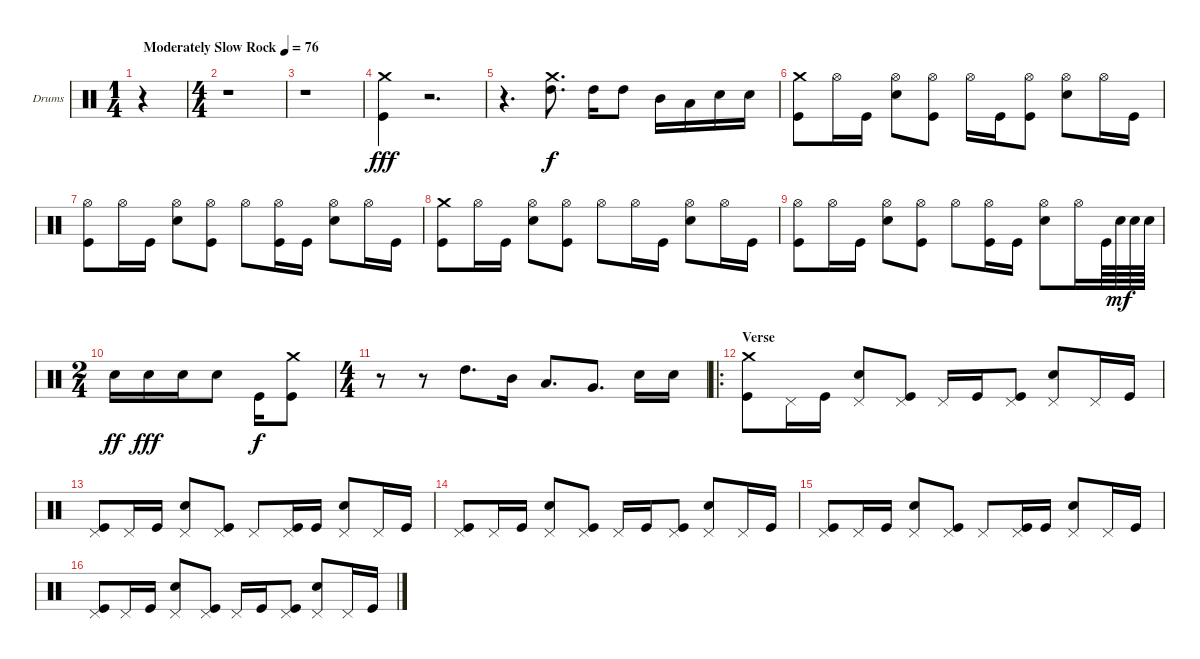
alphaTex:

\bracketExtendMode groupsimilarinstruments
\firstSystemTrackNameOrientation horizontal
\otherSystemsTrackNameOrientation horizontal
\track ("Drumkit" "Drums") {instrument percussion}
\staff {score}
\articulation defaults
\voice
\ts (1 4)
\beaming (8 2 2 2 2)
\tempo (76 "Moderately Slow Rock")
\clef neutral
\ks c
r.4{dy fff} |
\ts (4 4)
\beaming (8 2 2 2 2)
r.1 |
r.1 |
("Kick (hit)" "Crash medium (hit)").4 r.2{d} |
r.4{d} ("High Tom (hit)" "Crash medium (hit)").8{d dy f} "High Tom (hit)".16 "High Tom (hit)".8 "Mid Tom (hit)".16 "Low Tom (hit)".16 "Snare (hit) 2".16 "Snare (hit) 2".16 |
("Crash medium (hit)" "Kick (hit)").8 "Hi-Hat (open)".16 "Kick (hit)".16 ("Hi-Hat (open)" "Snare (hit) 2").8 ("Hi-Hat (open)" "Kick (hit)").8 "Hi-Hat (open)".16 "Kick (hit)".16 ("Hi-Hat (open)" "Kick (hit)").8 ("Hi-Hat (open)" "Snare (hit) 2").8 "Hi-Hat (open)".16 "Kick (hit)".16 |
("Hi-Hat (open)" "Kick (hit)").8 "Hi-Hat (open)".16 "Kick (hit)".16 ("Hi-Hat (open)" "Snare (hit) 2").8 ("Hi-Hat (open)" "Kick (hit)").8 "Hi-Hat (open)".8 ("Hi-Hat (open)" "Kick (hit)").16 "Kick (hit)".16 ("Hi-Hat (open)" "Snare (hit) 2").8 "Hi-Hat (open)".16 "Kick (hit)".16 |
("Crash medium (hit)" "Kick (hit)").8 "Hi-Hat (open)".16 "Kick (hit)".16 ("Hi-Hat (open)" "Snare (hit) 2").8 ("Hi-Hat (open)" "Kick (hit)").8 "Hi-Hat (open)".8 "Hi-Hat (open)".16 "Kick (hit)".16 ("Hi-Hat (open)" "Snare (hit) 2").8 "Hi-Hat (open)".16 "Kick (hit)".16 |
("Hi-Hat (open)" "Kick (hit)").8 "Hi-Hat (open)".16 "Kick (hit)".16 ("Hi-Hat (open)" "Snare (hit) 2").8 ("Hi-Hat (open)" "Kick (hit)").8 "Hi-Hat (open)".8 ("Hi-Hat (open)" "Kick (hit)").16 "Kick (hit)".16 ("Hi-Hat (open)" "Snare (hit) 2").8 "Hi-Hat (open)".16 "Kick (hit)".64 "Snare (hit) 2".64{dy mf} "Snare (hit) 2".64 "Snare (hit) 2".64 |
\ts (2 4)
\beaming (8 2 2 2 2)
"Snare (hit) 2".16{dy ff} "Snare (hit) 2".16{dy fff} "Snare (hit) 2".16 "Snare (hit) 2".8 "Kick (hit)".16{dy f} ("Kick (hit)" "Crash medium (hit)").8 |
\ts (4 4)
\beaming (8 2 2 2 2)
r.8 r.8 "High Tom (hit)".8{d} "Mid Tom (hit)".16 "Low Tom (hit)".8{d} "Very Low Tom (hit)".8{d} "Snare (hit) 2".16 "Snare (hit) 2".16 |
\ro
\section ("" "Verse")
("Crash medium (hit)" "Kick (hit)").8 "Pedal Hi-Hat (hit)".16 "Kick (hit)".16 ("Pedal Hi-Hat (hit)" "Snare (hit) 2").8 ("Pedal Hi-Hat (hit)" "Kick (hit)").8 "Pedal Hi-Hat (hit)".16 "Kick (hit)".16 ("Pedal Hi-Hat (hit)" "Kick (hit)").8 ("Pedal Hi-Hat (hit)" "Snare (hit) 2").8 "Pedal Hi-Hat (hit)".16 "Kick (hit)".16 |
("Pedal Hi-Hat (hit)" "Kick (hit)").8 "Pedal Hi-Hat (hit)".16 "Kick (hit)".16 ("Pedal Hi-Hat (hit)" "Snare (hit) 2").8 ("Pedal Hi-Hat (hit)" "Kick (hit)").8 "Pedal Hi-Hat (hit)".8 ("Pedal Hi-Hat (hit)" "Kick (hit)").16 "Kick (hit)".16 ("Pedal Hi-Hat (hit)" "Snare (hit) 2").8 "Pedal Hi-Hat (hit)".16 "Kick (hit)".16 |
("Pedal Hi-Hat (hit)" "Kick (hit)").8 "Pedal Hi-Hat (hit)".16 "Kick (hit)".16 ("Pedal Hi-Hat (hit)" "Snare (hit) 2").8 ("Pedal Hi-Hat (hit)" "Kick (hit)").8 "Pedal Hi-Hat (hit)".16 "Kick (hit)".16 ("Pedal Hi-Hat (hit)" "Kick (hit)").8 ("Pedal Hi-Hat (hit)" "Snare (hit) 2").8 "Pedal Hi-Hat (hit)".16 "Kick (hit)".16 |
("Pedal Hi-Hat (hit)" "Kick (hit)").8 "Pedal Hi-Hat (hit)".16 "Kick (hit)".16 ("Pedal Hi-Hat (hit)" "Snare (hit) 2").8 ("Pedal Hi-Hat (hit)" "Kick (hit)").8 "Pedal Hi-Hat (hit)".8 ("Pedal Hi-Hat (hit)" "Kick (hit)").16 "Kick (hit)".16 ("Pedal Hi-Hat (hit)" "Snare (hit) 2").8 "Pedal Hi-Hat (hit)".16 "Kick (hit)".16 |
("Pedal Hi-Hat (hit)" "Kick (hit)").8 "Pedal Hi-Hat (hit)".16 "Kick (hit)".16 ("Pedal Hi-Hat (hit)" "Snare (hit) 2").8 ("Pedal Hi-Hat (hit)" "Kick (hit)").8 "Pedal Hi-Hat (hit)".16 "Kick (hit)".16 ("Pedal Hi-Hat (hit)" "Kick (hit)").8 ("Pedal Hi-Hat (hit)" "Snare (hit) 2").8 "Pedal Hi-Hat (hit)".16 "Kick (hit)".16
\voice
\clef neutral
\ottava regular
\simile none
\ks c
r.4{dy mf} |
|
|
|
|
|
|
|
|
|
|
|
|
|
|
